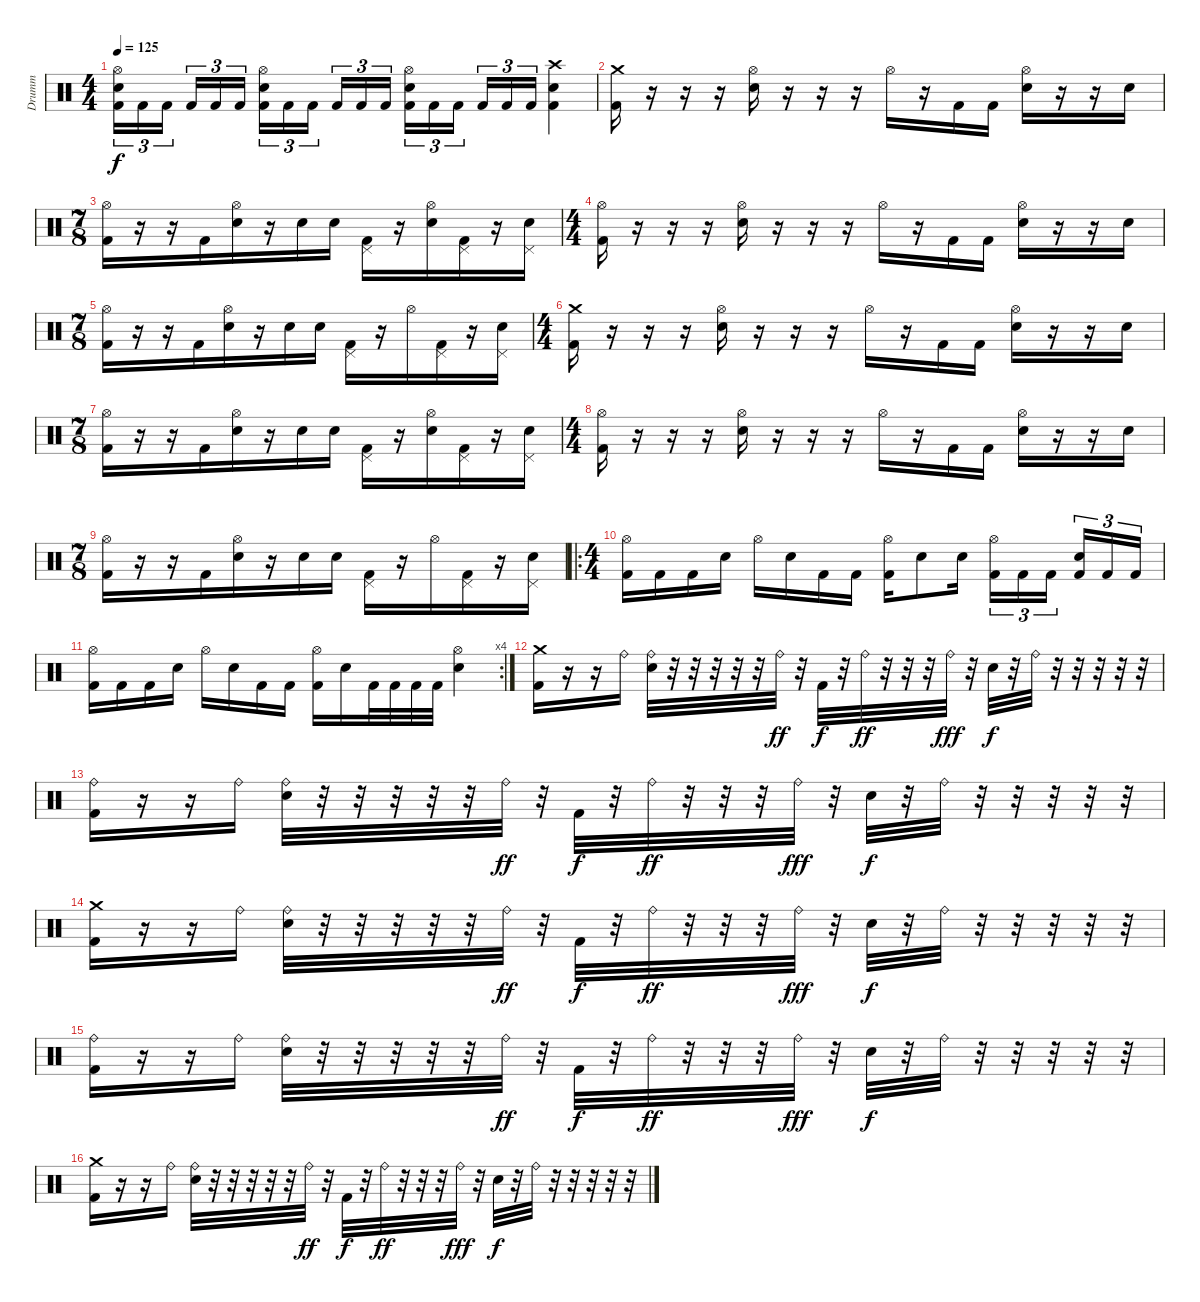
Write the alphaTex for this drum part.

\track ("Drumm" "Drumm") {instrument percussion}
\staff {score}
\articulation defaults
\ts (4 4)
\tempo 125
\clef neutral
\ks c
("Hi-Hat (open)" "Electric Snare (hit)" "Kick (hit) 2").16{tu (3 2) dy f} "Kick (hit) 2".16{tu (3 2)} "Kick (hit) 2".16{tu (3 2)} "Kick (hit) 2".16{tu (3 2)} "Kick (hit) 2".16{tu (3 2)} "Kick (hit) 2".16{tu (3 2)} ("Hi-Hat (open)" "Electric Snare (hit)" "Kick (hit) 2").16{tu (3 2)} "Kick (hit) 2".16{tu (3 2)} "Kick (hit) 2".16{tu (3 2)} "Kick (hit) 2".16{tu (3 2)} "Kick (hit) 2".16{tu (3 2)} "Kick (hit) 2".16{tu (3 2)} ("Hi-Hat (open)" "Electric Snare (hit)" "Kick (hit) 2").16{tu (3 2)} "Kick (hit) 2".16{tu (3 2)} "Kick (hit) 2".16{tu (3 2)} "Kick (hit) 2".16{tu (3 2)} "Kick (hit) 2".16{tu (3 2)} "Kick (hit) 2".16{tu (3 2)} ("Crash high (hit)" "Electric Snare (hit)" "Kick (hit) 2").4 |
("Crash medium (hit)" "Kick (hit) 2").16 r.16 r.16 r.16 ("Hi-Hat (open)" "Electric Snare (hit)").16 r.16 r.16 r.16 "Hi-Hat (open)".16 r.16 "Kick (hit) 2".16 "Kick (hit) 2".16 ("Hi-Hat (open)" "Electric Snare (hit)").16 r.16 r.16 "Electric Snare (hit)".16 |
\ts (7 8)
("Hi-Hat (open)" "Kick (hit) 2").16 r.16 r.16 "Kick (hit) 2".16 ("Hi-Hat (open)" "Electric Snare (hit)").16 r.16 "Electric Snare (hit)".16 "Electric Snare (hit)".16 ("Pedal Hi-Hat (hit)" "Kick (hit) 2").16 r.16 ("Hi-Hat (open)" "Electric Snare (hit)").16 ("Pedal Hi-Hat (hit)" "Kick (hit) 2").16 r.16 ("Pedal Hi-Hat (hit)" "Electric Snare (hit)").16 |
\ts (4 4)
("Hi-Hat (open)" "Kick (hit) 2").16 r.16 r.16 r.16 ("Hi-Hat (open)" "Electric Snare (hit)").16 r.16 r.16 r.16 "Hi-Hat (open)".16 r.16 "Kick (hit) 2".16 "Kick (hit) 2".16 ("Hi-Hat (open)" "Electric Snare (hit)").16 r.16 r.16 "Electric Snare (hit)".16 |
\ts (7 8)
("Hi-Hat (open)" "Kick (hit) 2").16 r.16 r.16 "Kick (hit) 2".16 ("Hi-Hat (open)" "Electric Snare (hit)").16 r.16 "Electric Snare (hit)".16 "Electric Snare (hit)".16 ("Pedal Hi-Hat (hit)" "Kick (hit) 2").16 r.16 "Hi-Hat (open)".16 ("Pedal Hi-Hat (hit)" "Kick (hit) 2").16 r.16 ("Pedal Hi-Hat (hit)" "Electric Snare (hit)").16 |
\ts (4 4)
("Crash medium (hit)" "Kick (hit) 2").16 r.16 r.16 r.16 ("Hi-Hat (open)" "Electric Snare (hit)").16 r.16 r.16 r.16 "Hi-Hat (open)".16 r.16 "Kick (hit) 2".16 "Kick (hit) 2".16 ("Hi-Hat (open)" "Electric Snare (hit)").16 r.16 r.16 "Electric Snare (hit)".16 |
\ts (7 8)
("Hi-Hat (open)" "Kick (hit) 2").16 r.16 r.16 "Kick (hit) 2".16 ("Hi-Hat (open)" "Electric Snare (hit)").16 r.16 "Electric Snare (hit)".16 "Electric Snare (hit)".16 ("Pedal Hi-Hat (hit)" "Kick (hit) 2").16 r.16 ("Hi-Hat (open)" "Electric Snare (hit)").16 ("Pedal Hi-Hat (hit)" "Kick (hit) 2").16 r.16 ("Pedal Hi-Hat (hit)" "Electric Snare (hit)").16 |
\ts (4 4)
("Hi-Hat (open)" "Kick (hit) 2").16 r.16 r.16 r.16 ("Hi-Hat (open)" "Electric Snare (hit)").16 r.16 r.16 r.16 "Hi-Hat (open)".16 r.16 "Kick (hit) 2".16 "Kick (hit) 2".16 ("Hi-Hat (open)" "Electric Snare (hit)").16 r.16 r.16 "Electric Snare (hit)".16 |
\ts (7 8)
("Hi-Hat (open)" "Kick (hit) 2").16 r.16 r.16 "Kick (hit) 2".16 ("Hi-Hat (open)" "Electric Snare (hit)").16 r.16 "Electric Snare (hit)".16 "Electric Snare (hit)".16 ("Pedal Hi-Hat (hit)" "Kick (hit) 2").16 r.16 "Hi-Hat (open)".16 ("Pedal Hi-Hat (hit)" "Kick (hit) 2").16 r.16 ("Pedal Hi-Hat (hit)" "Electric Snare (hit)").16 |
\ro
\ts (4 4)
("Hi-Hat (open)" "Kick (hit) 2").16 "Kick (hit) 2".16 "Kick (hit) 2".16 "Electric Snare (hit)".16 "Hi-Hat (open)".16 "Electric Snare (hit)".16 "Kick (hit) 2".16 "Kick (hit) 2".16 ("Hi-Hat (open)" "Kick (hit) 2").16 "Electric Snare (hit)".8 "Electric Snare (hit)".16 ("Hi-Hat (open)" "Kick (hit) 2").16{tu (3 2)} "Kick (hit) 2".16{tu (3 2)} "Kick (hit) 2".16{tu (3 2)} ("Electric Snare (hit)" "Kick (hit) 2").16{tu (3 2)} "Kick (hit) 2".16{tu (3 2)} "Kick (hit) 2".16{tu (3 2)} |
\rc 4
("Hi-Hat (open)" "Kick (hit) 2").16 "Kick (hit) 2".16 "Kick (hit) 2".16 "Electric Snare (hit)".16 "Hi-Hat (open)".16 "Electric Snare (hit)".16 "Kick (hit) 2".16 "Kick (hit) 2".16 ("Hi-Hat (open)" "Kick (hit) 2").16 "Electric Snare (hit)".16 "Kick (hit) 2".32 "Kick (hit) 2".32 "Kick (hit) 2".32 "Kick (hit) 2".32 ("Hi-Hat (open)" "Electric Snare (hit)").4 |
("Crash medium (hit)" "Kick (hit) 2").16 r.16 r.16 "Ride (bell)".16 ("Ride (bell)" "Electric Snare (hit)").32 r.32 r.32 r.32 r.32 r.32 "Ride (bell)".32{dy ff} r.32 "Kick (hit) 2".32{dy f} r.32 "Ride (bell)".32{dy ff} r.32 r.32 r.32 "Ride (bell)".32{dy fff} r.32 "Electric Snare (hit)".32{dy f} r.32 "Ride (bell)".32 r.32 r.32 r.32 r.32 r.32 |
("Ride (bell)" "Kick (hit) 2").16 r.16 r.16 "Ride (bell)".16 ("Ride (bell)" "Electric Snare (hit)").32 r.32 r.32 r.32 r.32 r.32 "Ride (bell)".32{dy ff} r.32 "Kick (hit) 2".32{dy f} r.32 "Ride (bell)".32{dy ff} r.32 r.32 r.32 "Ride (bell)".32{dy fff} r.32 "Electric Snare (hit)".32{dy f} r.32 "Ride (bell)".32 r.32 r.32 r.32 r.32 r.32 |
("Crash medium (hit)" "Kick (hit) 2").16 r.16 r.16 "Ride (bell)".16 ("Ride (bell)" "Electric Snare (hit)").32 r.32 r.32 r.32 r.32 r.32 "Ride (bell)".32{dy ff} r.32 "Kick (hit) 2".32{dy f} r.32 "Ride (bell)".32{dy ff} r.32 r.32 r.32 "Ride (bell)".32{dy fff} r.32 "Electric Snare (hit)".32{dy f} r.32 "Ride (bell)".32 r.32 r.32 r.32 r.32 r.32 |
("Ride (bell)" "Kick (hit) 2").16 r.16 r.16 "Ride (bell)".16 ("Ride (bell)" "Electric Snare (hit)").32 r.32 r.32 r.32 r.32 r.32 "Ride (bell)".32{dy ff} r.32 "Kick (hit) 2".32{dy f} r.32 "Ride (bell)".32{dy ff} r.32 r.32 r.32 "Ride (bell)".32{dy fff} r.32 "Electric Snare (hit)".32{dy f} r.32 "Ride (bell)".32 r.32 r.32 r.32 r.32 r.32 |
("Crash medium (hit)" "Kick (hit) 2").16 r.16 r.16 "Ride (bell)".16 ("Ride (bell)" "Electric Snare (hit)").32 r.32 r.32 r.32 r.32 r.32 "Ride (bell)".32{dy ff} r.32 "Kick (hit) 2".32{dy f} r.32 "Ride (bell)".32{dy ff} r.32 r.32 r.32 "Ride (bell)".32{dy fff} r.32 "Electric Snare (hit)".32{dy f} r.32 "Ride (bell)".32 r.32 r.32 r.32 r.32 r.32
